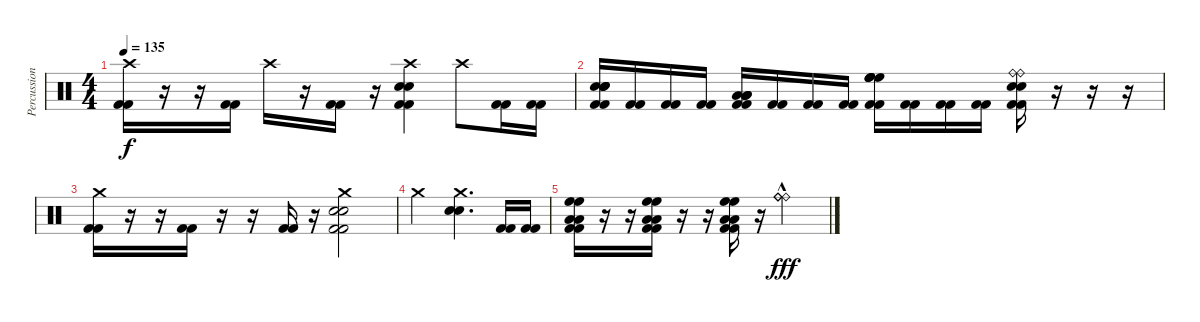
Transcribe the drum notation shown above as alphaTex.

\track ("Percussions" "Percussion") {instrument percussion}
\staff {score}
\articulation defaults
\ts (4 4)
\tempo 135
\clef neutral
\ks c
("Crash high (hit)" "Kick (hit) 2" "Kick (hit) 2").16{dy f} r.16 r.16 ("Kick (hit) 2" "Kick (hit) 2").16 "Crash high (hit)".16 r.16 ("Kick (hit) 2" "Kick (hit) 2").16 r.16 ("Crash high (hit)" "Electric Snare (hit)" "Electric Snare (hit)" "Kick (hit) 2" "Kick (hit) 2").4 "Crash high (hit)".8 ("Kick (hit) 2" "Kick (hit) 2").16 ("Kick (hit) 2" "Kick (hit) 2").16 |
("Electric Snare (hit)" "Electric Snare (hit)" "Electric Snare (hit)" "Electric Snare (hit)" "Kick (hit) 2" "Kick (hit) 2").16 ("Kick (hit) 2" "Kick (hit) 2").16 ("Kick (hit) 2" "Kick (hit) 2").16 ("Kick (hit) 2" "Kick (hit) 2").16 ("Low Tom (hit)" "Low Tom (hit)" "Low Tom (hit)" "Low Tom (hit)" "Kick (hit) 2" "Kick (hit) 2").16 ("Kick (hit) 2" "Kick (hit) 2").16 ("Kick (hit) 2" "Kick (hit) 2").16 ("Kick (hit) 2" "Kick (hit) 2").16 ("High Floor Tom (hit)" "High Floor Tom (hit)" "High Floor Tom (hit)" "High Floor Tom (hit)" "Kick (hit) 2" "Kick (hit) 2").16 ("Kick (hit) 2" "Kick (hit) 2").16 ("Kick (hit) 2" "Kick (hit) 2").16 ("Kick (hit) 2" "Kick (hit) 2").16 ("Ride (bell)" "Ride (bell)" "Electric Snare (hit)" "Electric Snare (hit)" "Kick (hit) 2" "Kick (hit) 2").16 r.16 r.16 r.16 |
("Crash medium (hit)" "Kick (hit) 2" "Kick (hit) 2").16 r.16 r.16 ("Kick (hit) 2" "Kick (hit) 2").16 r.16 r.16 ("Kick (hit) 2" "Kick (hit) 2").16 r.16 ("Crash medium (hit)" "Electric Snare (hit)" "Electric Snare (hit)" "Kick (hit) 2" "Kick (hit) 2").2 |
"Crash medium (hit)".2 ("Crash medium (hit)" "Electric Snare (hit)" "Electric Snare (hit)").4{d} ("Kick (hit) 2" "Kick (hit) 2").16 ("Kick (hit) 2" "Kick (hit) 2").16 |
("Kick (hit) 2" "Kick (hit) 2" "Low Tom (hit)" "Low Tom (hit)" "High Floor Tom (hit)" "High Floor Tom (hit)").16 r.16 r.16 ("Kick (hit) 2" "Kick (hit) 2" "Low Tom (hit)" "Low Tom (hit)" "High Floor Tom (hit)" "High Floor Tom (hit)").16 r.16 r.16 ("Kick (hit) 2" "Kick (hit) 2" "Low Tom (hit)" "Low Tom (hit)" "High Floor Tom (hit)" "High Floor Tom (hit)").16 r.16 ("Ride (bell)"{hac} "Ride (bell)"{hac} "Ride (bell)"{hac} "Ride (bell)"{hac}).2{dy fff}
